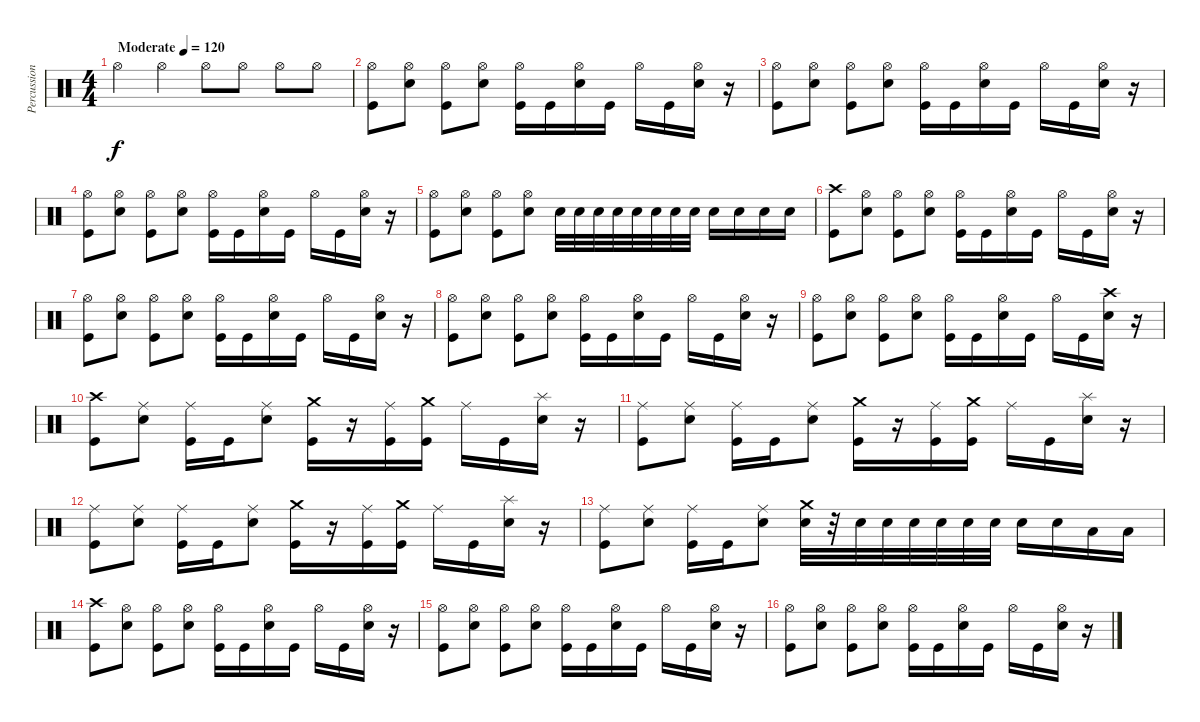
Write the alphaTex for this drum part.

\track ("Percussion" "Percussion") {instrument percussion}
\staff {score}
\articulation defaults
\ts (4 4)
\tempo (120 "Moderate")
\tempo 115
\tempo (120 "Moderate")
\clef neutral
\ks c "Hi-Hat (open)".4{dy f} "Hi-Hat (open)".4 "Hi-Hat (open)".8 "Hi-Hat (open)".8 "Hi-Hat (open)".8 "Hi-Hat (open)".8
|
("Kick (hit)" "Hi-Hat (open)").8 ("Electric Snare (hit)" "Hi-Hat (open)").8 ("Kick (hit)" "Hi-Hat (open)").8 ("Electric Snare (hit)" "Hi-Hat (open)").8 ("Hi-Hat (open)" "Kick (hit)").16 "Kick (hit)".16 ("Hi-Hat (open)" "Electric Snare (hit)").16 "Kick (hit)".16 "Hi-Hat (open)".16 "Kick (hit)".16 ("Hi-Hat (open)" "Electric Snare (hit)").16 r.16 |
("Kick (hit)" "Hi-Hat (open)").8 ("Electric Snare (hit)" "Hi-Hat (open)").8 ("Kick (hit)" "Hi-Hat (open)").8 ("Electric Snare (hit)" "Hi-Hat (open)").8 ("Hi-Hat (open)" "Kick (hit)").16 "Kick (hit)".16 ("Hi-Hat (open)" "Electric Snare (hit)").16 "Kick (hit)".16 "Hi-Hat (open)".16 "Kick (hit)".16 ("Hi-Hat (open)" "Electric Snare (hit)").16 r.16 |
("Kick (hit)" "Hi-Hat (open)").8 ("Electric Snare (hit)" "Hi-Hat (open)").8 ("Kick (hit)" "Hi-Hat (open)").8 ("Electric Snare (hit)" "Hi-Hat (open)").8 ("Hi-Hat (open)" "Kick (hit)").16 "Kick (hit)".16 ("Hi-Hat (open)" "Electric Snare (hit)").16 "Kick (hit)".16 "Hi-Hat (open)".16 "Kick (hit)".16 ("Hi-Hat (open)" "Electric Snare (hit)").16 r.16 |
("Kick (hit)" "Hi-Hat (open)").8 ("Electric Snare (hit)" "Hi-Hat (open)").8 ("Kick (hit)" "Hi-Hat (open)").8 ("Electric Snare (hit)" "Hi-Hat (open)").8 "Electric Snare (hit)".32 "Electric Snare (hit)".32 "Electric Snare (hit)".32 "Electric Snare (hit)".32 "Electric Snare (hit)".32 "Electric Snare (hit)".32 "Electric Snare (hit)".32 "Electric Snare (hit)".32 "Electric Snare (hit)".16 "Electric Snare (hit)".16 "Electric Snare (hit)".16 "Electric Snare (hit)".16 |
("Kick (hit)" "Crash high (hit)").8 ("Electric Snare (hit)" "Hi-Hat (open)").8 ("Kick (hit)" "Hi-Hat (open)").8 ("Electric Snare (hit)" "Hi-Hat (open)").8 ("Hi-Hat (open)" "Kick (hit)").16 "Kick (hit)".16 ("Hi-Hat (open)" "Electric Snare (hit)").16 "Kick (hit)".16 "Hi-Hat (open)".16 "Kick (hit)".16 ("Hi-Hat (open)" "Electric Snare (hit)").16 r.16 |
("Kick (hit)" "Hi-Hat (open)").8 ("Electric Snare (hit)" "Hi-Hat (open)").8 ("Kick (hit)" "Hi-Hat (open)").8 ("Electric Snare (hit)" "Hi-Hat (open)").8 ("Hi-Hat (open)" "Kick (hit)").16 "Kick (hit)".16 ("Hi-Hat (open)" "Electric Snare (hit)").16 "Kick (hit)".16 "Hi-Hat (open)".16 "Kick (hit)".16 ("Hi-Hat (open)" "Electric Snare (hit)").16 r.16 |
("Kick (hit)" "Hi-Hat (open)").8 ("Electric Snare (hit)" "Hi-Hat (open)").8 ("Kick (hit)" "Hi-Hat (open)").8 ("Electric Snare (hit)" "Hi-Hat (open)").8 ("Hi-Hat (open)" "Kick (hit)").16 "Kick (hit)".16 ("Hi-Hat (open)" "Electric Snare (hit)").16 "Kick (hit)".16 "Hi-Hat (open)".16 "Kick (hit)".16 ("Hi-Hat (open)" "Electric Snare (hit)").16 r.16 |
("Kick (hit)" "Hi-Hat (open)").8 ("Electric Snare (hit)" "Hi-Hat (open)").8 ("Kick (hit)" "Hi-Hat (open)").8 ("Electric Snare (hit)" "Hi-Hat (open)").8 ("Hi-Hat (open)" "Kick (hit)").16 "Kick (hit)".16 ("Hi-Hat (open)" "Electric Snare (hit)").16 "Kick (hit)".16 "Hi-Hat (open)".16 "Kick (hit)".16 ("Crash high (hit)" "Electric Snare (hit)").16 r.16 |
("Kick (hit)" "Crash high (hit)").8 ("Electric Snare (hit)" "Ride (middle)").8 ("Kick (hit)" "Ride (middle)").16 "Kick (hit)".16 ("Ride (middle)" "Electric Snare (hit)").8 ("Crash medium (hit)" "Kick (hit)").16 r.16 ("Ride (middle)" "Kick (hit)").16 ("Crash medium (hit)" "Kick (hit)").16 "Ride (middle)".16 "Kick (hit)".16 ("Splash (hit)" "Electric Snare (hit)").16 r.16 |
("Kick (hit)" "Ride (middle)").8 ("Electric Snare (hit)" "Ride (middle)").8 ("Kick (hit)" "Ride (middle)").16 "Kick (hit)".16 ("Ride (middle)" "Electric Snare (hit)").8 ("Crash medium (hit)" "Kick (hit)").16 r.16 ("Ride (middle)" "Kick (hit)").16 ("Crash medium (hit)" "Kick (hit)").16 "Ride (middle)".16 "Kick (hit)".16 ("Splash (hit)" "Electric Snare (hit)").16 r.16 |
("Kick (hit)" "Ride (middle)").8 ("Electric Snare (hit)" "Ride (middle)").8 ("Kick (hit)" "Ride (middle)").16 "Kick (hit)".16 ("Ride (middle)" "Electric Snare (hit)").8 ("Crash medium (hit)" "Kick (hit)").16 r.16 ("Ride (middle)" "Kick (hit)").16 ("Crash medium (hit)" "Kick (hit)").16 "Ride (middle)".16 "Kick (hit)".16 ("Splash (hit)" "Electric Snare (hit)").16 r.16 |
("Kick (hit)" "Ride (middle)").8 ("Electric Snare (hit)" "Ride (middle)").8 ("Kick (hit)" "Ride (middle)").16 "Kick (hit)".16 ("Ride (middle)" "Electric Snare (hit)").8 ("Crash medium (hit)" "Electric Snare (hit)").32 r.32 "Electric Snare (hit)".32 "Electric Snare (hit)".32 "Electric Snare (hit)".32 "Electric Snare (hit)".32 "Electric Snare (hit)".32 "Electric Snare (hit)".32 "Electric Snare (hit)".16 "Electric Snare (hit)".16 "Low Tom (hit)".16 "Low Tom (hit)".16 |
("Kick (hit)" "Crash high (hit)").8 ("Electric Snare (hit)" "Hi-Hat (open)").8 ("Kick (hit)" "Hi-Hat (open)").8 ("Electric Snare (hit)" "Hi-Hat (open)").8 ("Hi-Hat (open)" "Kick (hit)").16 "Kick (hit)".16 ("Hi-Hat (open)" "Electric Snare (hit)").16 "Kick (hit)".16 "Hi-Hat (open)".16 "Kick (hit)".16 ("Hi-Hat (open)" "Electric Snare (hit)").16 r.16 |
("Kick (hit)" "Hi-Hat (open)").8 ("Electric Snare (hit)" "Hi-Hat (open)").8 ("Kick (hit)" "Hi-Hat (open)").8 ("Electric Snare (hit)" "Hi-Hat (open)").8 ("Hi-Hat (open)" "Kick (hit)").16 "Kick (hit)".16 ("Hi-Hat (open)" "Electric Snare (hit)").16 "Kick (hit)".16 "Hi-Hat (open)".16 "Kick (hit)".16 ("Hi-Hat (open)" "Electric Snare (hit)").16 r.16 |
("Kick (hit)" "Hi-Hat (open)").8 ("Electric Snare (hit)" "Hi-Hat (open)").8 ("Kick (hit)" "Hi-Hat (open)").8 ("Electric Snare (hit)" "Hi-Hat (open)").8 ("Hi-Hat (open)" "Kick (hit)").16 "Kick (hit)".16 ("Hi-Hat (open)" "Electric Snare (hit)").16 "Kick (hit)".16 "Hi-Hat (open)".16 "Kick (hit)".16 ("Hi-Hat (open)" "Electric Snare (hit)").16 r.16
